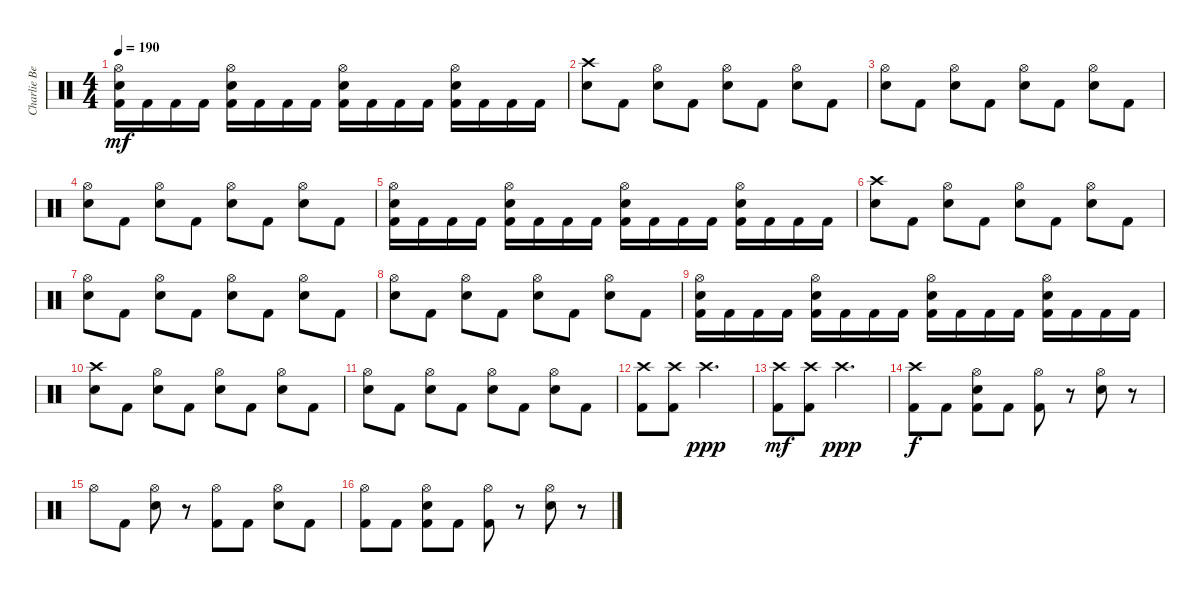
\track ("Charlie Benante" "Charlie Be") {instrument percussion}
\staff {score}
\articulation defaults
\ts (4 4)
\tempo 190
\clef neutral
\ks c
("Kick (hit) 2" "Snare (hit) 2" "Hi-Hat (open)").16{dy mf} "Kick (hit) 2".16 "Kick (hit) 2".16 "Kick (hit) 2".16 ("Kick (hit) 2" "Snare (hit) 2" "Hi-Hat (open)").16 "Kick (hit) 2".16 "Kick (hit) 2".16 "Kick (hit) 2".16 ("Kick (hit) 2" "Snare (hit) 2" "Hi-Hat (open)").16 "Kick (hit) 2".16 "Kick (hit) 2".16 "Kick (hit) 2".16 ("Kick (hit) 2" "Snare (hit) 2" "Hi-Hat (open)").16 "Kick (hit) 2".16 "Kick (hit) 2".16 "Kick (hit) 2".16 |
("Snare (hit) 2" "Crash high (hit)").8 "Kick (hit) 2".8 ("Snare (hit) 2" "Hi-Hat (open)").8 "Kick (hit) 2".8 ("Snare (hit) 2" "Hi-Hat (open)").8 "Kick (hit) 2".8 ("Snare (hit) 2" "Hi-Hat (open)").8 "Kick (hit) 2".8 |
("Snare (hit) 2" "Hi-Hat (open)").8 "Kick (hit) 2".8 ("Snare (hit) 2" "Hi-Hat (open)").8 "Kick (hit) 2".8 ("Snare (hit) 2" "Hi-Hat (open)").8 "Kick (hit) 2".8 ("Snare (hit) 2" "Hi-Hat (open)").8 "Kick (hit) 2".8 |
("Snare (hit) 2" "Hi-Hat (open)").8 "Kick (hit) 2".8 ("Snare (hit) 2" "Hi-Hat (open)").8 "Kick (hit) 2".8 ("Snare (hit) 2" "Hi-Hat (open)").8 "Kick (hit) 2".8 ("Snare (hit) 2" "Hi-Hat (open)").8 "Kick (hit) 2".8 |
("Kick (hit) 2" "Snare (hit) 2" "Hi-Hat (open)").16 "Kick (hit) 2".16 "Kick (hit) 2".16 "Kick (hit) 2".16 ("Kick (hit) 2" "Snare (hit) 2" "Hi-Hat (open)").16 "Kick (hit) 2".16 "Kick (hit) 2".16 "Kick (hit) 2".16 ("Kick (hit) 2" "Snare (hit) 2" "Hi-Hat (open)").16 "Kick (hit) 2".16 "Kick (hit) 2".16 "Kick (hit) 2".16 ("Kick (hit) 2" "Snare (hit) 2" "Hi-Hat (open)").16 "Kick (hit) 2".16 "Kick (hit) 2".16 "Kick (hit) 2".16 |
("Snare (hit) 2" "Crash high (hit)").8 "Kick (hit) 2".8 ("Snare (hit) 2" "Hi-Hat (open)").8 "Kick (hit) 2".8 ("Snare (hit) 2" "Hi-Hat (open)").8 "Kick (hit) 2".8 ("Snare (hit) 2" "Hi-Hat (open)").8 "Kick (hit) 2".8 |
("Snare (hit) 2" "Hi-Hat (open)").8 "Kick (hit) 2".8 ("Snare (hit) 2" "Hi-Hat (open)").8 "Kick (hit) 2".8 ("Snare (hit) 2" "Hi-Hat (open)").8 "Kick (hit) 2".8 ("Snare (hit) 2" "Hi-Hat (open)").8 "Kick (hit) 2".8 |
("Snare (hit) 2" "Hi-Hat (open)").8 "Kick (hit) 2".8 ("Snare (hit) 2" "Hi-Hat (open)").8 "Kick (hit) 2".8 ("Snare (hit) 2" "Hi-Hat (open)").8 "Kick (hit) 2".8 ("Snare (hit) 2" "Hi-Hat (open)").8 "Kick (hit) 2".8 |
("Kick (hit) 2" "Snare (hit) 2" "Hi-Hat (open)").16 "Kick (hit) 2".16 "Kick (hit) 2".16 "Kick (hit) 2".16 ("Kick (hit) 2" "Snare (hit) 2" "Hi-Hat (open)").16 "Kick (hit) 2".16 "Kick (hit) 2".16 "Kick (hit) 2".16 ("Kick (hit) 2" "Snare (hit) 2" "Hi-Hat (open)").16 "Kick (hit) 2".16 "Kick (hit) 2".16 "Kick (hit) 2".16 ("Kick (hit) 2" "Snare (hit) 2" "Hi-Hat (open)").16 "Kick (hit) 2".16 "Kick (hit) 2".16 "Kick (hit) 2".16 |
("Snare (hit) 2" "Crash high (hit)").8 "Kick (hit) 2".8 ("Snare (hit) 2" "Hi-Hat (open)").8 "Kick (hit) 2".8 ("Snare (hit) 2" "Hi-Hat (open)").8 "Kick (hit) 2".8 ("Snare (hit) 2" "Hi-Hat (open)").8 "Kick (hit) 2".8 |
("Snare (hit) 2" "Hi-Hat (open)").8 "Kick (hit) 2".8 ("Snare (hit) 2" "Hi-Hat (open)").8 "Kick (hit) 2".8 ("Snare (hit) 2" "Hi-Hat (open)").8 "Kick (hit) 2".8 ("Snare (hit) 2" "Hi-Hat (open)").8 "Kick (hit) 2".8 |
("Kick (hit) 2" "Crash high (hit)").8 ("Kick (hit) 2" "Crash high (hit)").8 "Crash high (hit)".2{d dy ppp} |
("Kick (hit) 2" "Crash high (hit)").8{dy mf} ("Kick (hit) 2" "Crash high (hit)").8 "Crash high (hit)".2{d dy ppp} |
("Kick (hit) 2" "Crash high (hit)").8{dy f} "Kick (hit) 2".8 ("Kick (hit) 2" "Hi-Hat (open)" "Snare (hit) 2").8 "Kick (hit) 2".8 ("Kick (hit) 2" "Hi-Hat (open)").8 r.8 ("Snare (hit) 2" "Hi-Hat (open)").8 r.8 |
"Hi-Hat (open)".8 "Kick (hit) 2".8 ("Snare (hit) 2" "Hi-Hat (open)").8 r.8 ("Kick (hit) 2" "Hi-Hat (open)").8 "Kick (hit) 2".8 ("Snare (hit) 2" "Hi-Hat (open)").8 "Kick (hit) 2".8 |
("Kick (hit) 2" "Hi-Hat (open)").8 "Kick (hit) 2".8 ("Kick (hit) 2" "Hi-Hat (open)" "Snare (hit) 2").8 "Kick (hit) 2".8 ("Kick (hit) 2" "Hi-Hat (open)").8 r.8 ("Snare (hit) 2" "Hi-Hat (open)").8 r.8
